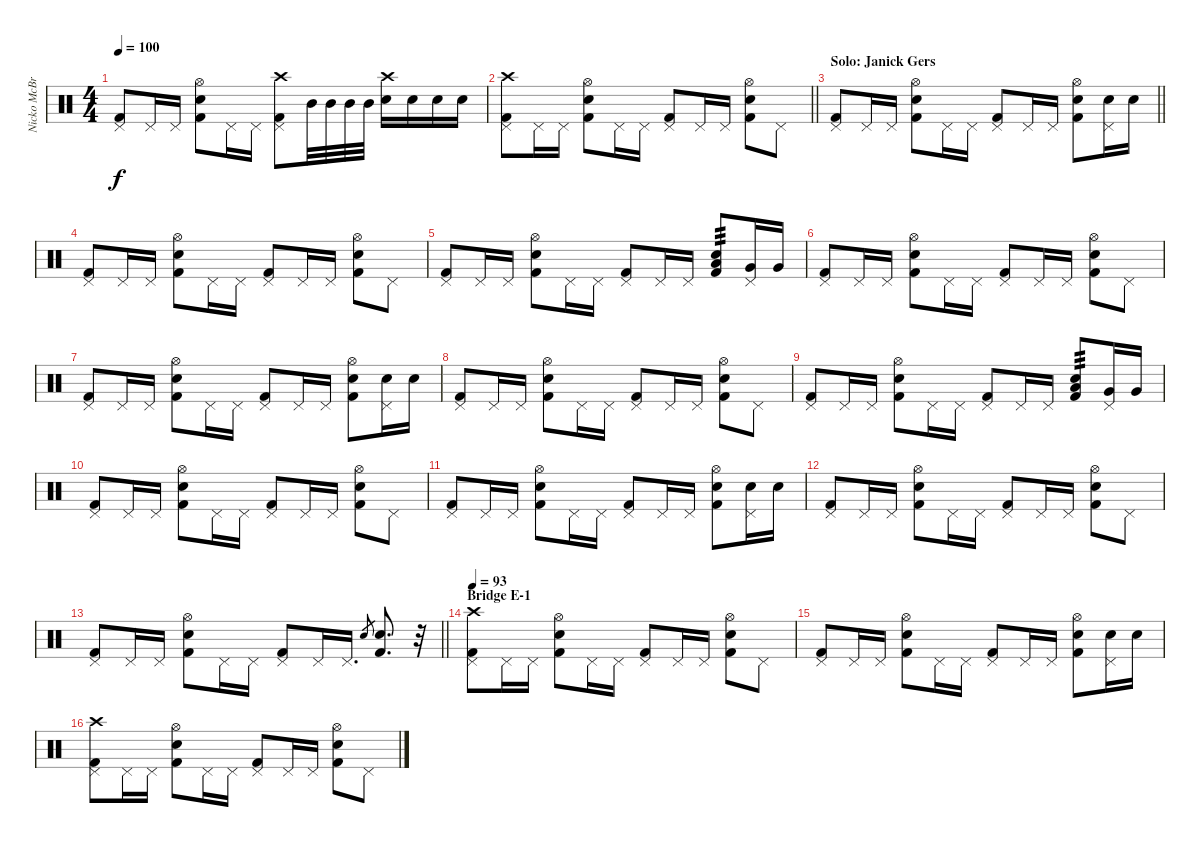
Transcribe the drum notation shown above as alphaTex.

\track ("Nicko McBrain" "Nicko McBr") {instrument percussion}
\staff {score}
\articulation defaults
\ts (4 4)
\tempo 100
\clef neutral
\ks c
("Pedal Hi-Hat (hit)" "Kick (hit) 2").8{dy f} "Pedal Hi-Hat (hit)".16 "Pedal Hi-Hat (hit)".16 ("Electric Snare (hit)" "Hi-Hat (open)" "Kick (hit) 2").8 "Pedal Hi-Hat (hit)".16 "Pedal Hi-Hat (hit)".16 ("Pedal Hi-Hat (hit)" "Crash high (hit)" "Kick (hit) 2").8 "Mid Tom (hit)".32 "Mid Tom (hit)".32 "Mid Tom (hit)".32 "Mid Tom (hit)".32 ("Electric Snare (hit)" "Crash high (hit)").16 "Electric Snare (hit)".16 "Electric Snare (hit)".16 "Electric Snare (hit)".16 |
\barLineRight lightlight
("Pedal Hi-Hat (hit)" "Crash high (hit)" "Kick (hit) 2").8 "Pedal Hi-Hat (hit)".16 "Pedal Hi-Hat (hit)".16 ("Electric Snare (hit)" "Hi-Hat (open)" "Kick (hit) 2").8 "Pedal Hi-Hat (hit)".16 "Pedal Hi-Hat (hit)".16 ("Pedal Hi-Hat (hit)" "Kick (hit) 2").8 "Pedal Hi-Hat (hit)".16 "Pedal Hi-Hat (hit)".16 ("Electric Snare (hit)" "Hi-Hat (open)" "Kick (hit) 2").8 "Pedal Hi-Hat (hit)".8 |
\section ("" "Solo: Janick Gers")
\barLineRight lightlight
("Pedal Hi-Hat (hit)" "Kick (hit) 2").8 "Pedal Hi-Hat (hit)".16 "Pedal Hi-Hat (hit)".16 ("Electric Snare (hit)" "Hi-Hat (open)" "Kick (hit) 2").8 "Pedal Hi-Hat (hit)".16 "Pedal Hi-Hat (hit)".16 ("Pedal Hi-Hat (hit)" "Kick (hit) 2").8 "Pedal Hi-Hat (hit)".16 "Pedal Hi-Hat (hit)".16 ("Electric Snare (hit)" "Hi-Hat (open)" "Kick (hit) 2").8 ("Pedal Hi-Hat (hit)" "Electric Snare (hit)").16 "Electric Snare (hit)".16 |
("Pedal Hi-Hat (hit)" "Kick (hit) 2").8 "Pedal Hi-Hat (hit)".16 "Pedal Hi-Hat (hit)".16 ("Electric Snare (hit)" "Hi-Hat (open)" "Kick (hit) 2").8 "Pedal Hi-Hat (hit)".16 "Pedal Hi-Hat (hit)".16 ("Pedal Hi-Hat (hit)" "Kick (hit) 2").8 "Pedal Hi-Hat (hit)".16 "Pedal Hi-Hat (hit)".16 ("Electric Snare (hit)" "Hi-Hat (open)" "Kick (hit) 2").8 "Pedal Hi-Hat (hit)".8 |
("Pedal Hi-Hat (hit)" "Kick (hit) 2").8 "Pedal Hi-Hat (hit)".16 "Pedal Hi-Hat (hit)".16 ("Electric Snare (hit)" "Hi-Hat (open)" "Kick (hit) 2").8 "Pedal Hi-Hat (hit)".16 "Pedal Hi-Hat (hit)".16 ("Pedal Hi-Hat (hit)" "Kick (hit) 2").8 "Pedal Hi-Hat (hit)".16 "Pedal Hi-Hat (hit)".16 ("Electric Snare (hit)" "Low Tom (hit)" "Kick (hit) 2").8{tp 3} ("Pedal Hi-Hat (hit)" "Very Low Tom (hit)").16 "Very Low Tom (hit)".16 |
("Pedal Hi-Hat (hit)" "Kick (hit) 2").8 "Pedal Hi-Hat (hit)".16 "Pedal Hi-Hat (hit)".16 ("Electric Snare (hit)" "Hi-Hat (open)" "Kick (hit) 2").8 "Pedal Hi-Hat (hit)".16 "Pedal Hi-Hat (hit)".16 ("Pedal Hi-Hat (hit)" "Kick (hit) 2").8 "Pedal Hi-Hat (hit)".16 "Pedal Hi-Hat (hit)".16 ("Electric Snare (hit)" "Hi-Hat (open)" "Kick (hit) 2").8 "Pedal Hi-Hat (hit)".8 |
("Pedal Hi-Hat (hit)" "Kick (hit) 2").8 "Pedal Hi-Hat (hit)".16 "Pedal Hi-Hat (hit)".16 ("Electric Snare (hit)" "Hi-Hat (open)" "Kick (hit) 2").8 "Pedal Hi-Hat (hit)".16 "Pedal Hi-Hat (hit)".16 ("Pedal Hi-Hat (hit)" "Kick (hit) 2").8 "Pedal Hi-Hat (hit)".16 "Pedal Hi-Hat (hit)".16 ("Electric Snare (hit)" "Hi-Hat (open)" "Kick (hit) 2").8 ("Pedal Hi-Hat (hit)" "Electric Snare (hit)").16 "Electric Snare (hit)".16 |
("Pedal Hi-Hat (hit)" "Kick (hit) 2").8 "Pedal Hi-Hat (hit)".16 "Pedal Hi-Hat (hit)".16 ("Electric Snare (hit)" "Hi-Hat (open)" "Kick (hit) 2").8 "Pedal Hi-Hat (hit)".16 "Pedal Hi-Hat (hit)".16 ("Pedal Hi-Hat (hit)" "Kick (hit) 2").8 "Pedal Hi-Hat (hit)".16 "Pedal Hi-Hat (hit)".16 ("Electric Snare (hit)" "Hi-Hat (open)" "Kick (hit) 2").8 "Pedal Hi-Hat (hit)".8 |
("Pedal Hi-Hat (hit)" "Kick (hit) 2").8 "Pedal Hi-Hat (hit)".16 "Pedal Hi-Hat (hit)".16 ("Electric Snare (hit)" "Hi-Hat (open)" "Kick (hit) 2").8 "Pedal Hi-Hat (hit)".16 "Pedal Hi-Hat (hit)".16 ("Pedal Hi-Hat (hit)" "Kick (hit) 2").8 "Pedal Hi-Hat (hit)".16 "Pedal Hi-Hat (hit)".16 ("Electric Snare (hit)" "Low Tom (hit)" "Kick (hit) 2").8{tp 3} ("Pedal Hi-Hat (hit)" "Very Low Tom (hit)").16 "Very Low Tom (hit)".16 |
("Pedal Hi-Hat (hit)" "Kick (hit) 2").8 "Pedal Hi-Hat (hit)".16 "Pedal Hi-Hat (hit)".16 ("Electric Snare (hit)" "Hi-Hat (open)" "Kick (hit) 2").8 "Pedal Hi-Hat (hit)".16 "Pedal Hi-Hat (hit)".16 ("Pedal Hi-Hat (hit)" "Kick (hit) 2").8 "Pedal Hi-Hat (hit)".16 "Pedal Hi-Hat (hit)".16 ("Electric Snare (hit)" "Hi-Hat (open)" "Kick (hit) 2").8 "Pedal Hi-Hat (hit)".8 |
("Pedal Hi-Hat (hit)" "Kick (hit) 2").8 "Pedal Hi-Hat (hit)".16 "Pedal Hi-Hat (hit)".16 ("Electric Snare (hit)" "Hi-Hat (open)" "Kick (hit) 2").8 "Pedal Hi-Hat (hit)".16 "Pedal Hi-Hat (hit)".16 ("Pedal Hi-Hat (hit)" "Kick (hit) 2").8 "Pedal Hi-Hat (hit)".16 "Pedal Hi-Hat (hit)".16 ("Electric Snare (hit)" "Hi-Hat (open)" "Kick (hit) 2").8 ("Pedal Hi-Hat (hit)" "Electric Snare (hit)").16 "Electric Snare (hit)".16 |
("Pedal Hi-Hat (hit)" "Kick (hit) 2").8 "Pedal Hi-Hat (hit)".16 "Pedal Hi-Hat (hit)".16 ("Electric Snare (hit)" "Hi-Hat (open)" "Kick (hit) 2").8 "Pedal Hi-Hat (hit)".16 "Pedal Hi-Hat (hit)".16 ("Pedal Hi-Hat (hit)" "Kick (hit) 2").8 "Pedal Hi-Hat (hit)".16 "Pedal Hi-Hat (hit)".16 ("Electric Snare (hit)" "Hi-Hat (open)" "Kick (hit) 2").8 "Pedal Hi-Hat (hit)".8 |
\barLineRight lightlight
("Pedal Hi-Hat (hit)" "Kick (hit) 2").8 "Pedal Hi-Hat (hit)".16 "Pedal Hi-Hat (hit)".16 ("Electric Snare (hit)" "Hi-Hat (open)" "Kick (hit) 2").8 "Pedal Hi-Hat (hit)".16 "Pedal Hi-Hat (hit)".16 ("Pedal Hi-Hat (hit)" "Kick (hit) 2").8 "Pedal Hi-Hat (hit)".16 "Pedal Hi-Hat (hit)".16{d} "Electric Snare (hit)".8{gr} ("Electric Snare (hit)" "Kick (hit) 2").8{d} r.32 |
\section ("" "Bridge E-1")
\tempo 93
("Pedal Hi-Hat (hit)" "Crash high (hit)" "Kick (hit) 2").8 "Pedal Hi-Hat (hit)".16 "Pedal Hi-Hat (hit)".16 ("Electric Snare (hit)" "Hi-Hat (open)" "Kick (hit) 2").8 "Pedal Hi-Hat (hit)".16 "Pedal Hi-Hat (hit)".16 ("Pedal Hi-Hat (hit)" "Kick (hit) 2").8 "Pedal Hi-Hat (hit)".16 "Pedal Hi-Hat (hit)".16 ("Electric Snare (hit)" "Hi-Hat (open)" "Kick (hit) 2").8 "Pedal Hi-Hat (hit)".8 |
("Pedal Hi-Hat (hit)" "Kick (hit) 2").8 "Pedal Hi-Hat (hit)".16 "Pedal Hi-Hat (hit)".16 ("Electric Snare (hit)" "Hi-Hat (open)" "Kick (hit) 2").8 "Pedal Hi-Hat (hit)".16 "Pedal Hi-Hat (hit)".16 ("Pedal Hi-Hat (hit)" "Kick (hit) 2").8 "Pedal Hi-Hat (hit)".16 "Pedal Hi-Hat (hit)".16 ("Electric Snare (hit)" "Hi-Hat (open)" "Kick (hit) 2").8 ("Pedal Hi-Hat (hit)" "Electric Snare (hit)").16 "Electric Snare (hit)".16 |
("Pedal Hi-Hat (hit)" "Crash high (hit)" "Kick (hit) 2").8 "Pedal Hi-Hat (hit)".16 "Pedal Hi-Hat (hit)".16 ("Electric Snare (hit)" "Hi-Hat (open)" "Kick (hit) 2").8 "Pedal Hi-Hat (hit)".16 "Pedal Hi-Hat (hit)".16 ("Pedal Hi-Hat (hit)" "Kick (hit) 2").8 "Pedal Hi-Hat (hit)".16 "Pedal Hi-Hat (hit)".16 ("Electric Snare (hit)" "Hi-Hat (open)" "Kick (hit) 2").8 "Pedal Hi-Hat (hit)".8
